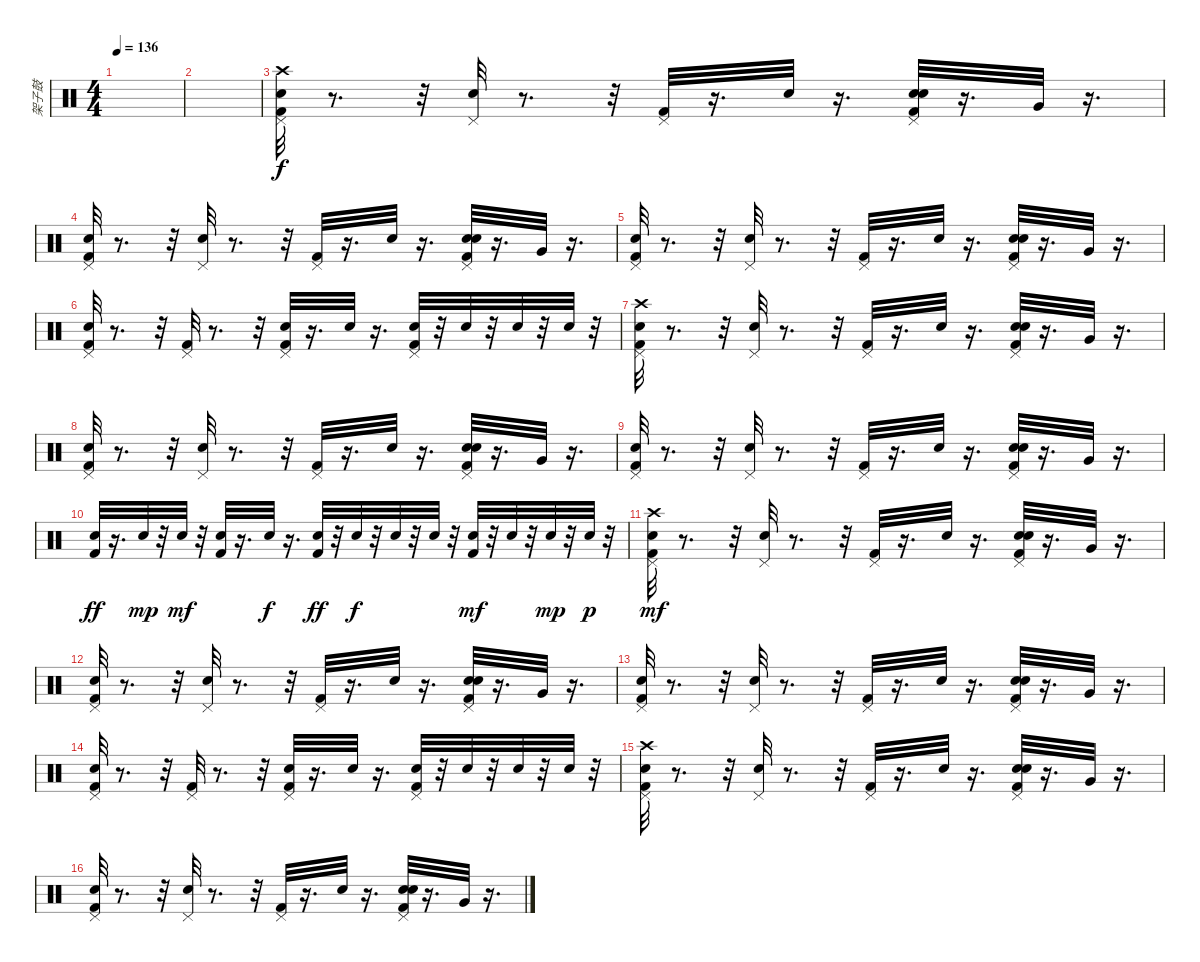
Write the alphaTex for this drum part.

\track ("架子鼓" "架子鼓") {instrument percussion}
\staff {score}
\articulation defaults
\ts (4 4)
\tempo 136
\clef neutral
\ks c
|
|
("Pedal Hi-Hat (hit)" "Kick (hit) 2" "Metronome (bell)" "Crash high (hit)").32 r.8{d} r.32 ("Pedal Hi-Hat (hit)" "Metronome (bell)").32 r.8{d} r.32 ("Pedal Hi-Hat (hit)" "Kick (hit) 2").32 r.16{d} "Metronome (bell)".32 r.16{d} ("Pedal Hi-Hat (hit)" "Electric Snare (hit)" "Kick (hit) 2" "Metronome (bell)").32 r.16{d} "Very Low Tom (hit)".32 r.16{d} |
("Pedal Hi-Hat (hit)" "Kick (hit) 2" "Metronome (bell)").32 r.8{d} r.32 ("Pedal Hi-Hat (hit)" "Metronome (bell)").32 r.8{d} r.32 ("Pedal Hi-Hat (hit)" "Kick (hit) 2").32 r.16{d} "Metronome (bell)".32 r.16{d} ("Pedal Hi-Hat (hit)" "Electric Snare (hit)" "Kick (hit) 2" "Metronome (bell)").32 r.16{d} "Very Low Tom (hit)".32 r.16{d} |
("Pedal Hi-Hat (hit)" "Kick (hit) 2" "Metronome (bell)").32 r.8{d} r.32 ("Pedal Hi-Hat (hit)" "Metronome (bell)").32 r.8{d} r.32 ("Pedal Hi-Hat (hit)" "Kick (hit) 2").32 r.16{d} "Metronome (bell)".32 r.16{d} ("Pedal Hi-Hat (hit)" "Electric Snare (hit)" "Kick (hit) 2" "Metronome (bell)").32 r.16{d} "Very Low Tom (hit)".32 r.16{d} |
("Pedal Hi-Hat (hit)" "Kick (hit) 2" "Metronome (bell)").32 r.8{d} r.32 ("Pedal Hi-Hat (hit)" "Kick (hit) 2").32 r.8{d} r.32 ("Pedal Hi-Hat (hit)" "Kick (hit) 2" "Metronome (bell)").32 r.16{d} "Metronome (bell)".32 r.16{d} ("Pedal Hi-Hat (hit)" "Kick (hit) 2" "Metronome (bell)").32 r.32 "Metronome (bell)".32 r.32 "Metronome (bell)".32 r.32 "Metronome (bell)".32 r.32 |
("Pedal Hi-Hat (hit)" "Kick (hit) 2" "Metronome (bell)" "Crash high (hit)").32 r.8{d} r.32 ("Pedal Hi-Hat (hit)" "Metronome (bell)").32 r.8{d} r.32 ("Pedal Hi-Hat (hit)" "Kick (hit) 2").32 r.16{d} "Metronome (bell)".32 r.16{d} ("Pedal Hi-Hat (hit)" "Electric Snare (hit)" "Kick (hit) 2" "Metronome (bell)").32 r.16{d} "Very Low Tom (hit)".32 r.16{d} |
("Pedal Hi-Hat (hit)" "Kick (hit) 2" "Metronome (bell)").32 r.8{d} r.32 ("Pedal Hi-Hat (hit)" "Metronome (bell)").32 r.8{d} r.32 ("Pedal Hi-Hat (hit)" "Kick (hit) 2").32 r.16{d} "Metronome (bell)".32 r.16{d} ("Pedal Hi-Hat (hit)" "Electric Snare (hit)" "Kick (hit) 2" "Metronome (bell)").32 r.16{d} "Very Low Tom (hit)".32 r.16{d} |
("Pedal Hi-Hat (hit)" "Kick (hit) 2" "Metronome (bell)").32 r.8{d} r.32 ("Pedal Hi-Hat (hit)" "Metronome (bell)").32 r.8{d} r.32 ("Pedal Hi-Hat (hit)" "Kick (hit) 2").32 r.16{d} "Metronome (bell)".32 r.16{d} ("Pedal Hi-Hat (hit)" "Electric Snare (hit)" "Kick (hit) 2" "Metronome (bell)").32 r.16{d} "Very Low Tom (hit)".32 r.16{d} |
("Metronome (bell)" "Kick (hit) 2").32{dy ff} r.16{d} "Metronome (bell)".32{dy mp} r.32 "Metronome (bell)".32{dy mf} r.32 ("Metronome (bell)" "Kick (hit) 2").32 r.16{d} "Metronome (bell)".32{dy f} r.16{d} ("Kick (hit) 2" "Metronome (bell)").32{dy ff} r.32 "Metronome (bell)".32{dy f} r.32 "Metronome (bell)".32 r.32 "Metronome (bell)".32 r.32 ("Kick (hit) 2" "Metronome (bell)").32{dy mf} r.32 "Metronome (bell)".32 r.32 "Metronome (bell)".32{dy mp} r.32 "Metronome (bell)".32{dy p} r.32 |
("Pedal Hi-Hat (hit)" "Kick (hit) 2" "Metronome (bell)" "Crash high (hit)").32{dy mf} r.8{d} r.32 ("Pedal Hi-Hat (hit)" "Metronome (bell)").32 r.8{d} r.32 ("Pedal Hi-Hat (hit)" "Kick (hit) 2").32 r.16{d} "Metronome (bell)".32 r.16{d} ("Pedal Hi-Hat (hit)" "Electric Snare (hit)" "Kick (hit) 2" "Metronome (bell)").32 r.16{d} "Very Low Tom (hit)".32 r.16{d} |
("Pedal Hi-Hat (hit)" "Kick (hit) 2" "Metronome (bell)").32 r.8{d} r.32 ("Pedal Hi-Hat (hit)" "Metronome (bell)").32 r.8{d} r.32 ("Pedal Hi-Hat (hit)" "Kick (hit) 2").32 r.16{d} "Metronome (bell)".32 r.16{d} ("Pedal Hi-Hat (hit)" "Electric Snare (hit)" "Kick (hit) 2" "Metronome (bell)").32 r.16{d} "Very Low Tom (hit)".32 r.16{d} |
("Pedal Hi-Hat (hit)" "Kick (hit) 2" "Metronome (bell)").32 r.8{d} r.32 ("Pedal Hi-Hat (hit)" "Metronome (bell)").32 r.8{d} r.32 ("Pedal Hi-Hat (hit)" "Kick (hit) 2").32 r.16{d} "Metronome (bell)".32 r.16{d} ("Pedal Hi-Hat (hit)" "Electric Snare (hit)" "Kick (hit) 2" "Metronome (bell)").32 r.16{d} "Very Low Tom (hit)".32 r.16{d} |
("Pedal Hi-Hat (hit)" "Kick (hit) 2" "Metronome (bell)").32 r.8{d} r.32 ("Pedal Hi-Hat (hit)" "Kick (hit) 2").32 r.8{d} r.32 ("Pedal Hi-Hat (hit)" "Kick (hit) 2" "Metronome (bell)").32 r.16{d} "Metronome (bell)".32 r.16{d} ("Pedal Hi-Hat (hit)" "Kick (hit) 2" "Metronome (bell)").32 r.32 "Metronome (bell)".32 r.32 "Metronome (bell)".32 r.32 "Metronome (bell)".32 r.32 |
("Pedal Hi-Hat (hit)" "Kick (hit) 2" "Metronome (bell)" "Crash high (hit)").32 r.8{d} r.32 ("Pedal Hi-Hat (hit)" "Metronome (bell)").32 r.8{d} r.32 ("Pedal Hi-Hat (hit)" "Kick (hit) 2").32 r.16{d} "Metronome (bell)".32 r.16{d} ("Pedal Hi-Hat (hit)" "Electric Snare (hit)" "Kick (hit) 2" "Metronome (bell)").32 r.16{d} "Very Low Tom (hit)".32 r.16{d} |
("Pedal Hi-Hat (hit)" "Kick (hit) 2" "Metronome (bell)").32 r.8{d} r.32 ("Pedal Hi-Hat (hit)" "Metronome (bell)").32 r.8{d} r.32 ("Pedal Hi-Hat (hit)" "Kick (hit) 2").32 r.16{d} "Metronome (bell)".32 r.16{d} ("Pedal Hi-Hat (hit)" "Electric Snare (hit)" "Kick (hit) 2" "Metronome (bell)").32 r.16{d} "Very Low Tom (hit)".32 r.16{d}
